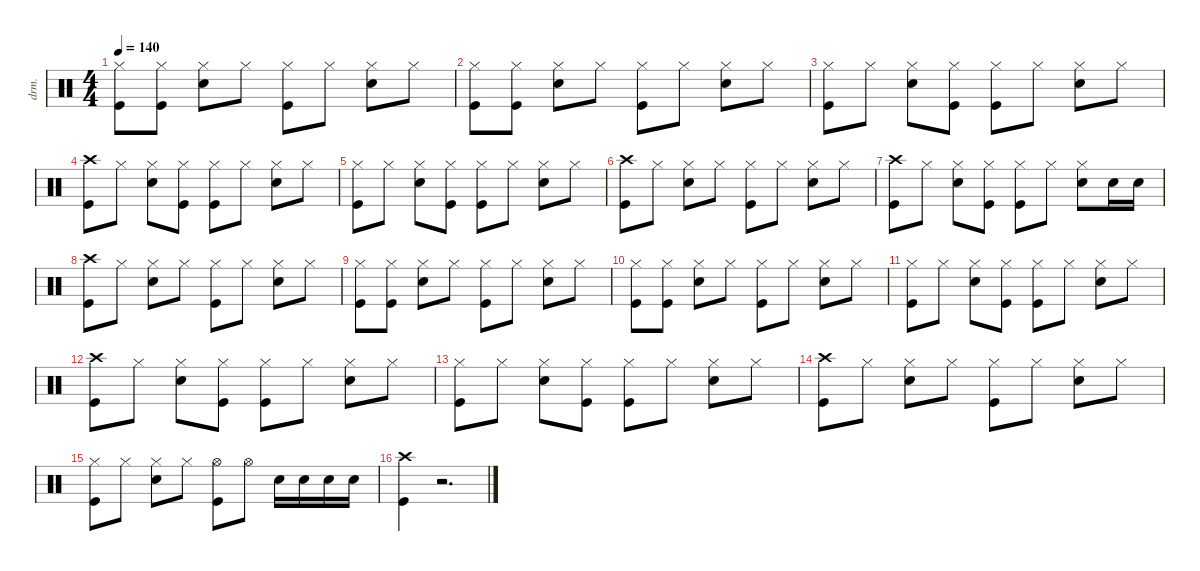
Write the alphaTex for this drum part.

\defaultSystemsLayout 4
\hideDynamics
\bracketExtendMode nobrackets
\otherSystemsTrackNameOrientation horizontal
\track ("Drums" "drm.") {instrument percussion}
\staff {score}
\articulation defaults
\ts (4 4)
\tempo 140
\clef neutral
\ks c
("Kick (hit)" "Hi-Hat (closed)").8{dy f} ("Kick (hit)" "Hi-Hat (closed)").8 ("Snare (hit) 2" "Hi-Hat (closed)").8 "Hi-Hat (closed)".8 ("Kick (hit)" "Hi-Hat (closed)").8 "Hi-Hat (closed)".8 ("Snare (hit) 2" "Hi-Hat (closed)").8 "Hi-Hat (closed)".8 |
("Kick (hit)" "Hi-Hat (closed)").8 ("Kick (hit)" "Hi-Hat (closed)").8 ("Snare (hit) 2" "Hi-Hat (closed)").8 "Hi-Hat (closed)".8 ("Kick (hit)" "Hi-Hat (closed)").8 "Hi-Hat (closed)".8 ("Snare (hit) 2" "Hi-Hat (closed)").8 "Hi-Hat (closed)".8 |
("Kick (hit)" "Hi-Hat (closed)").8 "Hi-Hat (closed)".8 ("Snare (hit) 2" "Hi-Hat (closed)").8 ("Kick (hit)" "Hi-Hat (closed)").8 ("Kick (hit)" "Hi-Hat (closed)").8 "Hi-Hat (closed)".8 ("Snare (hit) 2" "Hi-Hat (closed)").8 "Hi-Hat (closed)".8 |
("Crash high (hit)" "Kick (hit)").8 "Hi-Hat (closed)".8 ("Snare (hit) 2" "Hi-Hat (closed)").8 ("Kick (hit)" "Hi-Hat (closed)").8 ("Kick (hit)" "Hi-Hat (closed)").8 "Hi-Hat (closed)".8 ("Snare (hit) 2" "Hi-Hat (closed)").8 "Hi-Hat (closed)".8 |
("Kick (hit)" "Hi-Hat (closed)").8 "Hi-Hat (closed)".8 ("Snare (hit) 2" "Hi-Hat (closed)").8 ("Kick (hit)" "Hi-Hat (closed)").8 ("Kick (hit)" "Hi-Hat (closed)").8 "Hi-Hat (closed)".8 ("Snare (hit) 2" "Hi-Hat (closed)").8 "Hi-Hat (closed)".8 |
("Crash high (hit)" "Kick (hit)").8 "Hi-Hat (closed)".8 ("Snare (hit) 2" "Hi-Hat (closed)").8 "Hi-Hat (closed)".8 ("Kick (hit)" "Hi-Hat (closed)").8 "Hi-Hat (closed)".8 ("Snare (hit) 2" "Hi-Hat (closed)").8 "Hi-Hat (closed)".8 |
("Crash high (hit)" "Kick (hit)").8 "Hi-Hat (closed)".8 ("Snare (hit) 2" "Hi-Hat (closed)").8 ("Kick (hit)" "Hi-Hat (closed)").8 ("Kick (hit)" "Hi-Hat (closed)").8 "Hi-Hat (closed)".8 ("Hi-Hat (closed)" "Snare (hit) 2").8 "Snare (hit) 2".16 "Snare (hit) 2".16 |
("Crash high (hit)" "Kick (hit)").8 "Hi-Hat (closed)".8 ("Snare (hit) 2" "Hi-Hat (closed)").8 "Hi-Hat (closed)".8 ("Kick (hit)" "Hi-Hat (closed)").8 "Hi-Hat (closed)".8 ("Snare (hit) 2" "Hi-Hat (closed)").8 "Hi-Hat (closed)".8 |
("Kick (hit)" "Hi-Hat (closed)").8 ("Kick (hit)" "Hi-Hat (closed)").8 ("Snare (hit) 2" "Hi-Hat (closed)").8 "Hi-Hat (closed)".8 ("Kick (hit)" "Hi-Hat (closed)").8 "Hi-Hat (closed)".8 ("Snare (hit) 2" "Hi-Hat (closed)").8 "Hi-Hat (closed)".8 |
("Kick (hit)" "Hi-Hat (closed)").8 ("Kick (hit)" "Hi-Hat (closed)").8 ("Snare (hit) 2" "Hi-Hat (closed)").8 "Hi-Hat (closed)".8 ("Kick (hit)" "Hi-Hat (closed)").8 "Hi-Hat (closed)".8 ("Snare (hit) 2" "Hi-Hat (closed)").8 "Hi-Hat (closed)".8 |
("Kick (hit)" "Hi-Hat (closed)").8 "Hi-Hat (closed)".8 ("Snare (hit) 2" "Hi-Hat (closed)").8 ("Kick (hit)" "Hi-Hat (closed)").8 ("Kick (hit)" "Hi-Hat (closed)").8 "Hi-Hat (closed)".8 ("Snare (hit) 2" "Hi-Hat (closed)").8 "Hi-Hat (closed)".8 |
("Crash high (hit)" "Kick (hit)").8 "Hi-Hat (closed)".8 ("Snare (hit) 2" "Hi-Hat (closed)").8 ("Kick (hit)" "Hi-Hat (closed)").8 ("Kick (hit)" "Hi-Hat (closed)").8 "Hi-Hat (closed)".8 ("Snare (hit) 2" "Hi-Hat (closed)").8 "Hi-Hat (closed)".8 |
("Kick (hit)" "Hi-Hat (closed)").8 "Hi-Hat (closed)".8 ("Snare (hit) 2" "Hi-Hat (closed)").8 ("Kick (hit)" "Hi-Hat (closed)").8 ("Kick (hit)" "Hi-Hat (closed)").8 "Hi-Hat (closed)".8 ("Snare (hit) 2" "Hi-Hat (closed)").8 "Hi-Hat (closed)".8 |
("Crash high (hit)" "Kick (hit)").8 "Hi-Hat (closed)".8 ("Snare (hit) 2" "Hi-Hat (closed)").8 "Hi-Hat (closed)".8 ("Kick (hit)" "Hi-Hat (closed)").8 "Hi-Hat (closed)".8 ("Snare (hit) 2" "Hi-Hat (closed)").8 "Hi-Hat (closed)".8 |
("Kick (hit)" "Hi-Hat (closed)").8 "Hi-Hat (closed)".8 ("Snare (hit) 2" "Hi-Hat (closed)").8 "Hi-Hat (closed)".8 ("Hi-Hat (open)" "Kick (hit)").8 "Hi-Hat (open)".8 "Snare (hit) 2".16 "Snare (hit) 2".16 "Snare (hit) 2".16 "Snare (hit) 2".16 |
("Kick (hit)" "Crash high (hit)").4 r.2{d}
